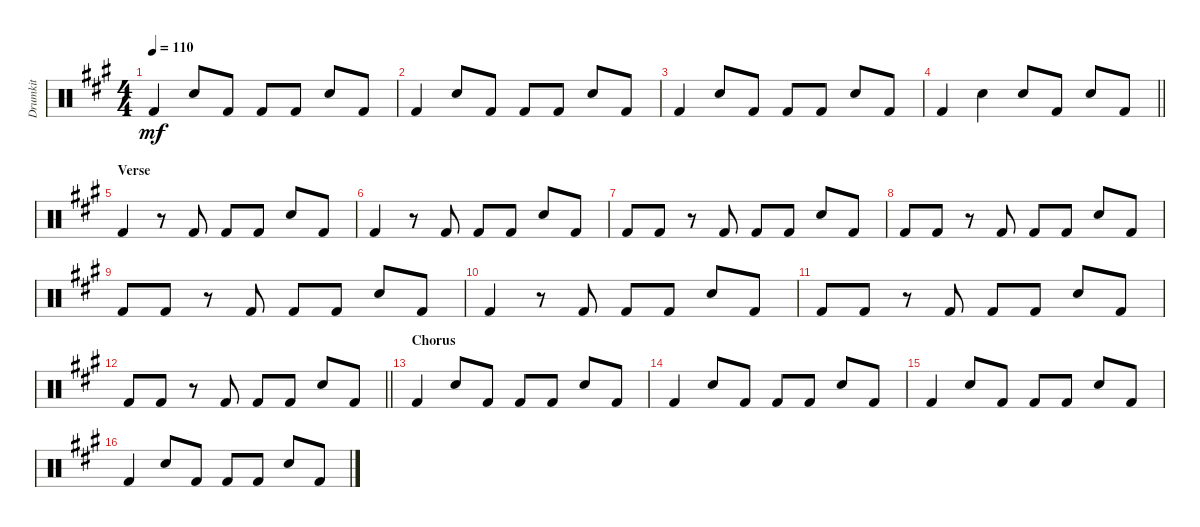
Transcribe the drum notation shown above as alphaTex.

\track ("Drumkit" "Drumkit") {instrument percussion}
\staff {score}
\articulation defaults
\ts (4 4)
\tempo 110
\clef neutral
\ks a "Kick (hit) 2".4{dy mf} "Snare (hit) 2".8 "Kick (hit) 2".8 "Kick (hit) 2".8 "Kick (hit) 2".8 "Snare (hit) 2".8 "Kick (hit) 2".8
|
"Kick (hit) 2".4 "Snare (hit) 2".8 "Kick (hit) 2".8 "Kick (hit) 2".8 "Kick (hit) 2".8 "Snare (hit) 2".8 "Kick (hit) 2".8 |
"Kick (hit) 2".4 "Snare (hit) 2".8 "Kick (hit) 2".8 "Kick (hit) 2".8 "Kick (hit) 2".8 "Snare (hit) 2".8 "Kick (hit) 2".8 |
\barLineRight lightlight "Kick (hit) 2".4 "Snare (hit) 2".4 "Snare (hit) 2".8 "Kick (hit) 2".8 "Snare (hit) 2".8 "Kick (hit) 2".8
|
\section ("" "Verse")
"Kick (hit) 2".4 r.8 "Kick (hit) 2".8 "Kick (hit) 2".8 "Kick (hit) 2".8 "Snare (hit) 2".8 "Kick (hit) 2".8 |
"Kick (hit) 2".4 r.8 "Kick (hit) 2".8 "Kick (hit) 2".8 "Kick (hit) 2".8 "Snare (hit) 2".8 "Kick (hit) 2".8 |
"Kick (hit) 2".8 "Kick (hit) 2".8 r.8 "Kick (hit) 2".8 "Kick (hit) 2".8 "Kick (hit) 2".8 "Snare (hit) 2".8 "Kick (hit) 2".8 |
"Kick (hit) 2".8 "Kick (hit) 2".8 r.8 "Kick (hit) 2".8 "Kick (hit) 2".8 "Kick (hit) 2".8 "Snare (hit) 2".8 "Kick (hit) 2".8 |
"Kick (hit) 2".8 "Kick (hit) 2".8 r.8 "Kick (hit) 2".8 "Kick (hit) 2".8 "Kick (hit) 2".8 "Snare (hit) 2".8 "Kick (hit) 2".8 |
"Kick (hit) 2".4 r.8 "Kick (hit) 2".8 "Kick (hit) 2".8 "Kick (hit) 2".8 "Snare (hit) 2".8 "Kick (hit) 2".8 |
"Kick (hit) 2".8 "Kick (hit) 2".8 r.8 "Kick (hit) 2".8 "Kick (hit) 2".8 "Kick (hit) 2".8 "Snare (hit) 2".8 "Kick (hit) 2".8 |
\barLineRight lightlight "Kick (hit) 2".8 "Kick (hit) 2".8
r.8 "Kick (hit) 2".8 "Kick (hit) 2".8 "Kick (hit) 2".8 "Snare (hit) 2".8 "Kick (hit) 2".8 |
\section ("" "Chorus")
"Kick (hit) 2".4 "Snare (hit) 2".8 "Kick (hit) 2".8 "Kick (hit) 2".8 "Kick (hit) 2".8 "Snare (hit) 2".8 "Kick (hit) 2".8 |
"Kick (hit) 2".4 "Snare (hit) 2".8 "Kick (hit) 2".8 "Kick (hit) 2".8 "Kick (hit) 2".8 "Snare (hit) 2".8 "Kick (hit) 2".8 |
"Kick (hit) 2".4 "Snare (hit) 2".8 "Kick (hit) 2".8 "Kick (hit) 2".8 "Kick (hit) 2".8 "Snare (hit) 2".8 "Kick (hit) 2".8 |
"Kick (hit) 2".4 "Snare (hit) 2".8 "Kick (hit) 2".8 "Kick (hit) 2".8 "Kick (hit) 2".8 "Snare (hit) 2".8 "Kick (hit) 2".8
